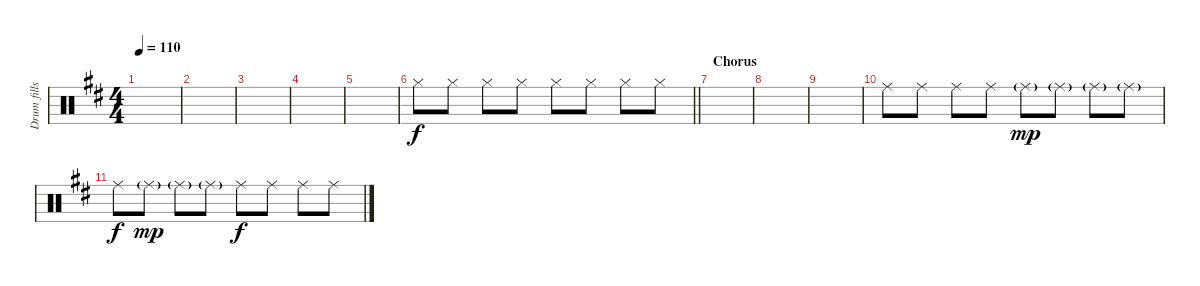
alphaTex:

\track ("Drum fills" "Drum fills") {instrument percussion}
\staff {score}
\articulation defaults
\ts (4 4)
\tempo 110
\clef neutral
\ks d
|
|
|
|
|
\barLineRight lightlight "Hi-Hat (closed)".8 "Hi-Hat (closed)".8 "Hi-Hat (closed)".8 "Hi-Hat (closed)".8 "Hi-Hat (closed)".8 "Hi-Hat (closed)".8 "Hi-Hat (closed)".8 "Hi-Hat (closed)".8
|
\section ("" "Chorus")
|
|
|
"Ride (middle)".8 "Ride (middle)".8 "Ride (middle)".8 "Ride (middle)".8 "Ride (middle)"{g}.8{dy mp} "Ride (middle)"{g}.8 "Ride (middle)"{g}.8 "Ride (middle)"{g}.8 |
"Ride (middle)".8{dy f} "Ride (middle)"{g}.8{dy mp} "Ride (middle)"{g}.8 "Ride (middle)"{g}.8 "Ride (middle)".8{dy f} "Ride (middle)".8 "Ride (middle)".8 "Ride (middle)".8
